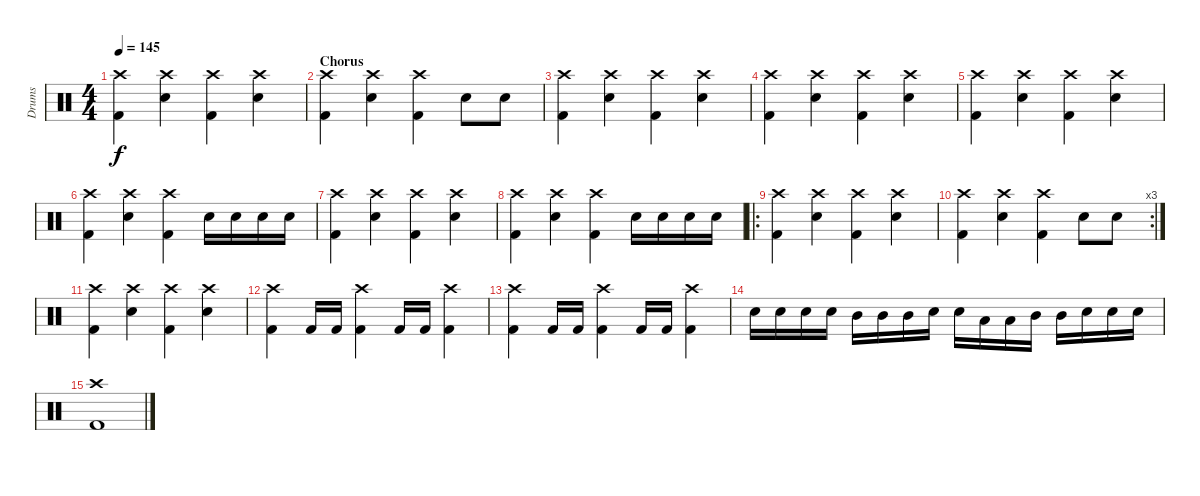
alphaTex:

\track ("Drums" "Drums") {instrument percussion}
\staff {score}
\articulation defaults
\ts (4 4)
\tempo 145
\clef neutral
\ks c
("Crash high (hit)" "Kick (hit) 2").4{dy f} ("Crash high (hit)" "Electric Snare (hit)").4 ("Crash high (hit)" "Kick (hit) 2").4 ("Crash high (hit)" "Electric Snare (hit)").4 |
\section ("" "Chorus")
("Crash high (hit)" "Kick (hit) 2").4 ("Crash high (hit)" "Electric Snare (hit)").4 ("Crash high (hit)" "Kick (hit) 2").4 "Electric Snare (hit)".8 "Electric Snare (hit)".8 |
("Crash high (hit)" "Kick (hit) 2").4 ("Crash high (hit)" "Electric Snare (hit)").4 ("Crash high (hit)" "Kick (hit) 2").4 ("Crash high (hit)" "Electric Snare (hit)").4 |
("Crash high (hit)" "Kick (hit) 2").4 ("Crash high (hit)" "Electric Snare (hit)").4 ("Crash high (hit)" "Kick (hit) 2").4 ("Crash high (hit)" "Electric Snare (hit)").4 |
("Crash high (hit)" "Kick (hit) 2").4 ("Crash high (hit)" "Electric Snare (hit)").4 ("Crash high (hit)" "Kick (hit) 2").4 ("Crash high (hit)" "Electric Snare (hit)").4 |
("Crash high (hit)" "Kick (hit) 2").4 ("Crash high (hit)" "Electric Snare (hit)").4 ("Crash high (hit)" "Kick (hit) 2").4 "Electric Snare (hit)".16 "Electric Snare (hit)".16 "Electric Snare (hit)".16 "Electric Snare (hit)".16 |
("Crash high (hit)" "Kick (hit) 2").4 ("Crash high (hit)" "Electric Snare (hit)").4 ("Crash high (hit)" "Kick (hit) 2").4 ("Crash high (hit)" "Electric Snare (hit)").4 |
("Crash high (hit)" "Kick (hit) 2").4 ("Crash high (hit)" "Electric Snare (hit)").4 ("Crash high (hit)" "Kick (hit) 2").4 "Electric Snare (hit)".16 "Electric Snare (hit)".16 "Electric Snare (hit)".16 "Electric Snare (hit)".16 |
\ro
("Crash high (hit)" "Kick (hit) 2").4 ("Crash high (hit)" "Electric Snare (hit)").4 ("Crash high (hit)" "Kick (hit) 2").4 ("Crash high (hit)" "Electric Snare (hit)").4 |
\rc 3
("Crash high (hit)" "Kick (hit) 2").4 ("Crash high (hit)" "Electric Snare (hit)").4 ("Crash high (hit)" "Kick (hit) 2").4 "Electric Snare (hit)".8 "Electric Snare (hit)".8 |
("Crash high (hit)" "Kick (hit) 2").4 ("Crash high (hit)" "Electric Snare (hit)").4 ("Crash high (hit)" "Kick (hit) 2").4 ("Crash high (hit)" "Electric Snare (hit)").4 |
("Crash high (hit)" "Kick (hit) 2").4 "Kick (hit) 2".16 "Kick (hit) 2".16 ("Crash high (hit)" "Kick (hit) 2").4 "Kick (hit) 2".16 "Kick (hit) 2".16 ("Crash high (hit)" "Kick (hit) 2").4 |
("Crash high (hit)" "Kick (hit) 2").4 "Kick (hit) 2".16 "Kick (hit) 2".16 ("Crash high (hit)" "Kick (hit) 2").4 "Kick (hit) 2".16 "Kick (hit) 2".16 ("Crash high (hit)" "Kick (hit) 2").4 |
"Electric Snare (hit)".16 "Electric Snare (hit)".16 "Electric Snare (hit)".16 "Electric Snare (hit)".16 "Mid Tom (hit)".16 "Mid Tom (hit)".16 "Mid Tom (hit)".16 "Electric Snare (hit)".16 "Electric Snare (hit)".16 "Low Tom (hit)".16 "Low Tom (hit)".16 "Mid Tom (hit)".16 "Mid Tom (hit)".16 "Electric Snare (hit)".16 "Electric Snare (hit)".16 "Electric Snare (hit)".16 |
("Crash high (hit)" "Kick (hit) 2").1
